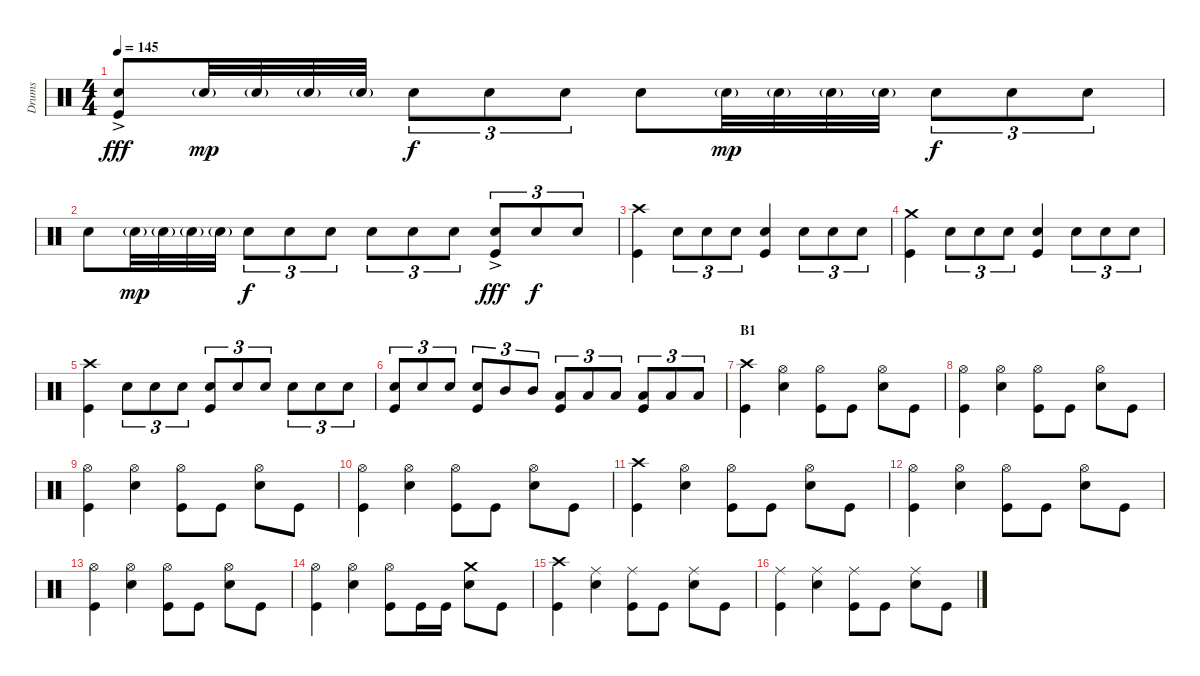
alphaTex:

\track ("Drums" "Drums") {instrument percussion}
\staff {score}
\articulation defaults
\ts (4 4)
\tempo 145
\clef neutral
\ks c
("Snare (hit) 2"{ac} "Kick (hit)"{ac}).8{dy fff} "Snare (hit) 2"{g}.32{dy mp} "Snare (hit) 2"{g}.32 "Snare (hit) 2"{g}.32 "Snare (hit) 2"{g}.32 "Snare (hit) 2".8{tu (3 2) dy f} "Snare (hit) 2".8{tu (3 2)} "Snare (hit) 2".8{tu (3 2)} "Snare (hit) 2".8 "Snare (hit) 2"{g}.32{dy mp} "Snare (hit) 2"{g}.32 "Snare (hit) 2"{g}.32 "Snare (hit) 2"{g}.32 "Snare (hit) 2".8{tu (3 2) dy f} "Snare (hit) 2".8{tu (3 2)} "Snare (hit) 2".8{tu (3 2)} |
"Snare (hit) 2".8 "Snare (hit) 2"{g}.32{dy mp} "Snare (hit) 2"{g}.32 "Snare (hit) 2"{g}.32 "Snare (hit) 2"{g}.32 "Snare (hit) 2".8{tu (3 2) dy f volume 12} "Snare (hit) 2".8{tu (3 2)} "Snare (hit) 2".8{tu (3 2)} "Snare (hit) 2".8{tu (3 2)} "Snare (hit) 2".8{tu (3 2)} "Snare (hit) 2".8{tu (3 2)} ("Snare (hit) 2"{ac} "Kick (hit)"{ac}).8{tu (3 2) dy fff} "Snare (hit) 2".8{tu (3 2) dy f} "Snare (hit) 2".8{tu (3 2)} |
("Crash high (hit)" "Kick (hit)").4 "Snare (hit) 2".8{tu (3 2) volume 10} "Snare (hit) 2".8{tu (3 2)} "Snare (hit) 2".8{tu (3 2)} ("Snare (hit) 2" "Kick (hit)").4 "Snare (hit) 2".8{tu (3 2)} "Snare (hit) 2".8{tu (3 2)} "Snare (hit) 2".8{tu (3 2)} |
("Crash medium (hit)" "Kick (hit)").4{volume 12} "Snare (hit) 2".8{tu (3 2) volume 10} "Snare (hit) 2".8{tu (3 2)} "Snare (hit) 2".8{tu (3 2)} ("Snare (hit) 2" "Kick (hit)").4 "Snare (hit) 2".8{tu (3 2)} "Snare (hit) 2".8{tu (3 2)} "Snare (hit) 2".8{tu (3 2)} |
("Crash high (hit)" "Kick (hit)").4{volume 12} "Snare (hit) 2".8{tu (3 2) volume 10} "Snare (hit) 2".8{tu (3 2)} "Snare (hit) 2".8{tu (3 2)} ("Snare (hit) 2" "Kick (hit)").8{tu (3 2)} "Snare (hit) 2".8{tu (3 2)} "Snare (hit) 2".8{tu (3 2)} "Snare (hit) 2".8{tu (3 2)} "Snare (hit) 2".8{tu (3 2)} "Snare (hit) 2".8{tu (3 2)} |
("Snare (hit) 2" "Kick (hit)").8{tu (3 2) volume 12} "Snare (hit) 2".8{tu (3 2)} "Snare (hit) 2".8{tu (3 2)} ("Snare (hit) 2" "Kick (hit)").8{tu (3 2)} "Mid Tom (hit)".8{tu (3 2)} "Mid Tom (hit)".8{tu (3 2)} ("Low Tom (hit)" "Kick (hit)").8{tu (3 2)} "Low Tom (hit)".8{tu (3 2)} "Low Tom (hit)".8{tu (3 2)} ("Low Floor Tom (hit)" "Kick (hit)").8{tu (3 2)} "Low Floor Tom (hit)".8{tu (3 2)} "Low Floor Tom (hit)".8{tu (3 2)} |
\section ("" "B1")
("Crash high (hit)" "Kick (hit)").4 ("Hi-Hat (open)" "Snare (hit) 2").4 ("Hi-Hat (open)" "Kick (hit)").8 "Kick (hit)".8 ("Hi-Hat (open)" "Snare (hit) 2").8 "Kick (hit)".8 |
("Hi-Hat (open)" "Kick (hit)").4 ("Hi-Hat (open)" "Snare (hit) 2").4 ("Hi-Hat (open)" "Kick (hit)").8 "Kick (hit)".8 ("Hi-Hat (open)" "Snare (hit) 2").8 "Kick (hit)".8 |
("Hi-Hat (open)" "Kick (hit)").4 ("Hi-Hat (open)" "Snare (hit) 2").4 ("Hi-Hat (open)" "Kick (hit)").8 "Kick (hit)".8 ("Hi-Hat (open)" "Snare (hit) 2").8 "Kick (hit)".8 |
("Hi-Hat (open)" "Kick (hit)").4 ("Hi-Hat (open)" "Snare (hit) 2").4 ("Hi-Hat (open)" "Kick (hit)").8 "Kick (hit)".8 ("Hi-Hat (open)" "Snare (hit) 2").8 "Kick (hit)".8 |
("Crash high (hit)" "Kick (hit)").4 ("Hi-Hat (open)" "Snare (hit) 2").4 ("Hi-Hat (open)" "Kick (hit)").8 "Kick (hit)".8 ("Hi-Hat (open)" "Snare (hit) 2").8 "Kick (hit)".8 |
("Hi-Hat (open)" "Kick (hit)").4 ("Hi-Hat (open)" "Snare (hit) 2").4 ("Hi-Hat (open)" "Kick (hit)").8 "Kick (hit)".8 ("Hi-Hat (open)" "Snare (hit) 2").8 "Kick (hit)".8 |
("Hi-Hat (open)" "Kick (hit)").4 ("Hi-Hat (open)" "Snare (hit) 2").4 ("Hi-Hat (open)" "Kick (hit)").8 "Kick (hit)".8 ("Hi-Hat (open)" "Snare (hit) 2").8 "Kick (hit)".8 |
("Hi-Hat (open)" "Kick (hit)").4 ("Hi-Hat (open)" "Snare (hit) 2").4 ("Hi-Hat (open)" "Kick (hit)").8 "Kick (hit)".16 "Kick (hit)".16 ("Crash medium (hit)" "Snare (hit) 2").8 "Kick (hit)".8 |
("Crash high (hit)" "Kick (hit)").4 ("Ride (middle)" "Snare (hit) 2").4 ("Ride (middle)" "Kick (hit)").8 "Kick (hit)".8 ("Ride (middle)" "Snare (hit) 2").8 "Kick (hit)".8 |
("Ride (middle)" "Kick (hit)").4 ("Ride (middle)" "Snare (hit) 2").4 ("Ride (middle)" "Kick (hit)").8 "Kick (hit)".8 ("Ride (middle)" "Snare (hit) 2").8 "Kick (hit)".8
